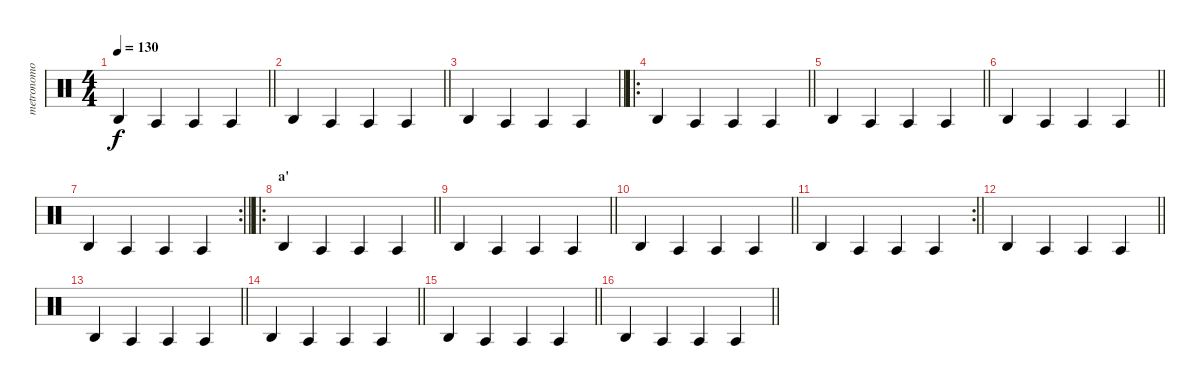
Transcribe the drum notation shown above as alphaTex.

\track ("metronomo" "metronomo") {mute instrument percussion}
\staff {score}
\articulation defaults
\ts (4 4)
\tempo 130
\clef neutral
\barLineRight lightlight
\ks c "Agogo high (hit)".4{dy f} "Agogo tow (hit)".4 "Agogo tow (hit)".4 "Agogo tow (hit)".4
|
\barLineRight lightlight "Agogo high (hit)".4 "Agogo tow (hit)".4 "Agogo tow (hit)".4 "Agogo tow (hit)".4
|
\barLineRight lightlight "Agogo high (hit)".4 "Agogo tow (hit)".4 "Agogo tow (hit)".4 "Agogo tow (hit)".4
|
\ro
\barLineRight lightlight "Agogo high (hit)".4 "Agogo tow (hit)".4 "Agogo tow (hit)".4 "Agogo tow (hit)".4
|
\barLineRight lightlight "Agogo high (hit)".4 "Agogo tow (hit)".4 "Agogo tow (hit)".4 "Agogo tow (hit)".4
|
\barLineRight lightlight "Agogo high (hit)".4 "Agogo tow (hit)".4 "Agogo tow (hit)".4 "Agogo tow (hit)".4
|
\rc 2
\barLineRight lightlight "Agogo high (hit)".4 "Agogo tow (hit)".4 "Agogo tow (hit)".4 "Agogo tow (hit)".4
|
\ro
\section ("" "a'")
\barLineRight lightlight "Agogo high (hit)".4 "Agogo tow (hit)".4 "Agogo tow (hit)".4 "Agogo tow (hit)".4
|
\barLineRight lightlight "Agogo high (hit)".4 "Agogo tow (hit)".4 "Agogo tow (hit)".4 "Agogo tow (hit)".4
|
\barLineRight lightlight "Agogo high (hit)".4 "Agogo tow (hit)".4 "Agogo tow (hit)".4 "Agogo tow (hit)".4
|
\rc 2
\barLineRight lightlight "Agogo high (hit)".4 "Agogo tow (hit)".4 "Agogo tow (hit)".4 "Agogo tow (hit)".4
|
\barLineRight lightlight "Agogo high (hit)".4 "Agogo tow (hit)".4 "Agogo tow (hit)".4 "Agogo tow (hit)".4
|
\barLineRight lightlight "Agogo high (hit)".4 "Agogo tow (hit)".4 "Agogo tow (hit)".4 "Agogo tow (hit)".4
|
\barLineRight lightlight "Agogo high (hit)".4 "Agogo tow (hit)".4 "Agogo tow (hit)".4 "Agogo tow (hit)".4
|
\barLineRight lightlight "Agogo high (hit)".4 "Agogo tow (hit)".4 "Agogo tow (hit)".4 "Agogo tow (hit)".4
|
\barLineRight lightlight "Agogo high (hit)".4 "Agogo tow (hit)".4 "Agogo tow (hit)".4 "Agogo tow (hit)".4
